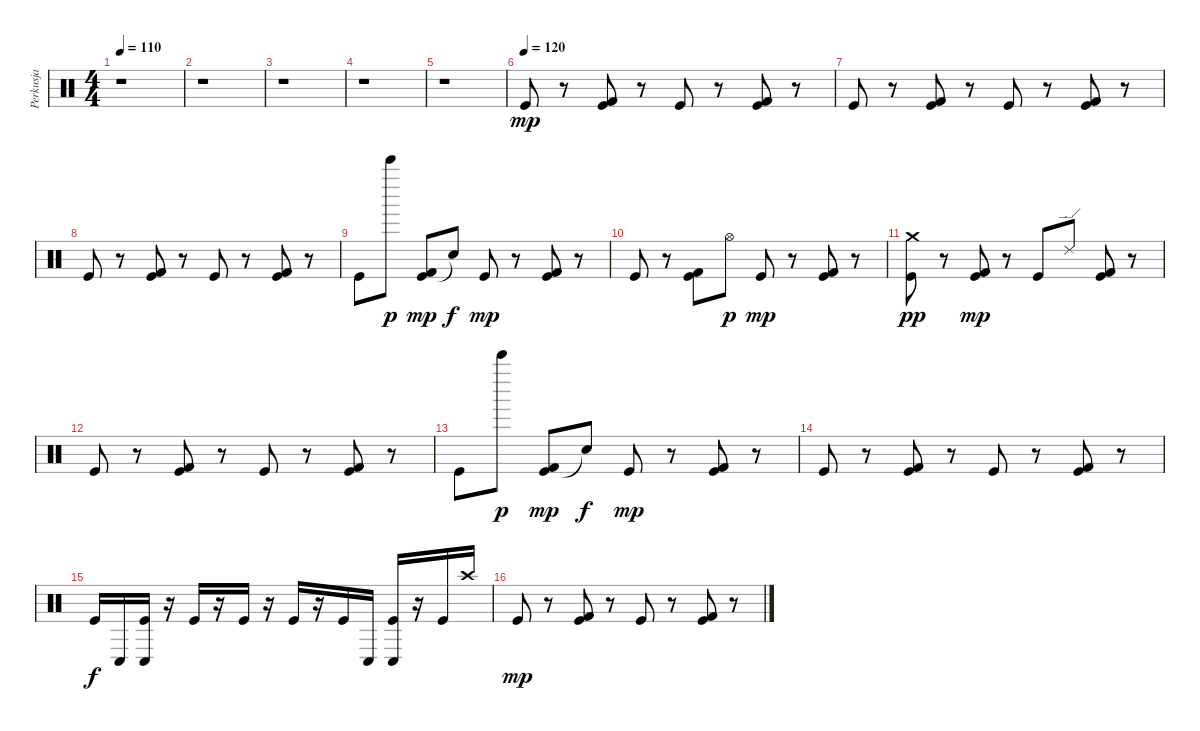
\track ("Perkusja" "Perkusja") {instrument percussion}
\staff {score}
\articulation defaults
\ts (4 4)
\tempo 110
\clef neutral
\ks c
r.1{dy f} |
r.1 |
r.1 |
r.1 |
r.1 |
\tempo (120)
"Kick (hit)".8{dy mp} r.8 ("Kick (hit)" "Kick (hit) 2").8 r.8 "Kick (hit)".8 r.8 ("Kick (hit)" "Kick (hit) 2").8 r.8 |
"Kick (hit)".8 r.8 ("Kick (hit)" "Kick (hit) 2").8 r.8 "Kick (hit)".8 r.8 ("Kick (hit)" "Kick (hit) 2").8 r.8 |
"Kick (hit)".8 r.8 ("Kick (hit)" "Kick (hit) 2").8 r.8 "Kick (hit)".8 r.8 ("Kick (hit)" "Kick (hit) 2").8 r.8 |
"Kick (hit)".8 "Bell Tree (hit)".8{dy p} ("Kick (hit)" "Kick (hit) 2").8{dy mp} "Snare (hit)"{t}.8{dy f} "Kick (hit)".8{dy mp} r.8 ("Kick (hit)" "Kick (hit) 2").8 r.8 |
"Kick (hit)".8 r.8 ("Kick (hit)" "Kick (hit) 2").8 "Hi-Hat (open)".8{dy p} "Kick (hit)".8{dy mp} r.8 ("Kick (hit)" "Kick (hit) 2").8 r.8 |
("Kick (hit)" "Crash medium (hit)").8{dy pp} r.8 ("Kick (hit)" "Kick (hit) 2").8{dy mp} r.8 "Kick (hit)".8 "Ride (edge) 2".8 ("Kick (hit)" "Kick (hit) 2").8 r.8 |
"Kick (hit)".8 r.8 ("Kick (hit)" "Kick (hit) 2").8 r.8 "Kick (hit)".8 r.8 ("Kick (hit)" "Kick (hit) 2").8 r.8 |
"Kick (hit)".8 "Bell Tree (hit)".8{dy p} ("Kick (hit)" "Kick (hit) 2").8{dy mp} "Snare (hit)"{t}.8{dy f} "Kick (hit)".8{dy mp} r.8 ("Kick (hit)" "Kick (hit) 2").8 r.8 |
"Kick (hit)".8 r.8 ("Kick (hit)" "Kick (hit) 2").8 r.8 "Kick (hit)".8 r.8 ("Kick (hit)" "Kick (hit) 2").8 r.8 |
"Kick (hit)".16{dy f} "Conga low (hit)".16 ("Kick (hit)" "Conga low (hit)").16 r.16 "Kick (hit)".16 r.16 "Kick (hit)".16 r.16 "Kick (hit)".16 r.16 "Kick (hit)".16 "Conga low (hit)".16 ("Kick (hit)" "Conga low (hit)").16 r.16 "Kick (hit)".16 "Crash high (hit)".16 |
"Kick (hit)".8{dy mp} r.8 ("Kick (hit)" "Kick (hit) 2").8 r.8 "Kick (hit)".8 r.8 ("Kick (hit)" "Kick (hit) 2").8 r.8
